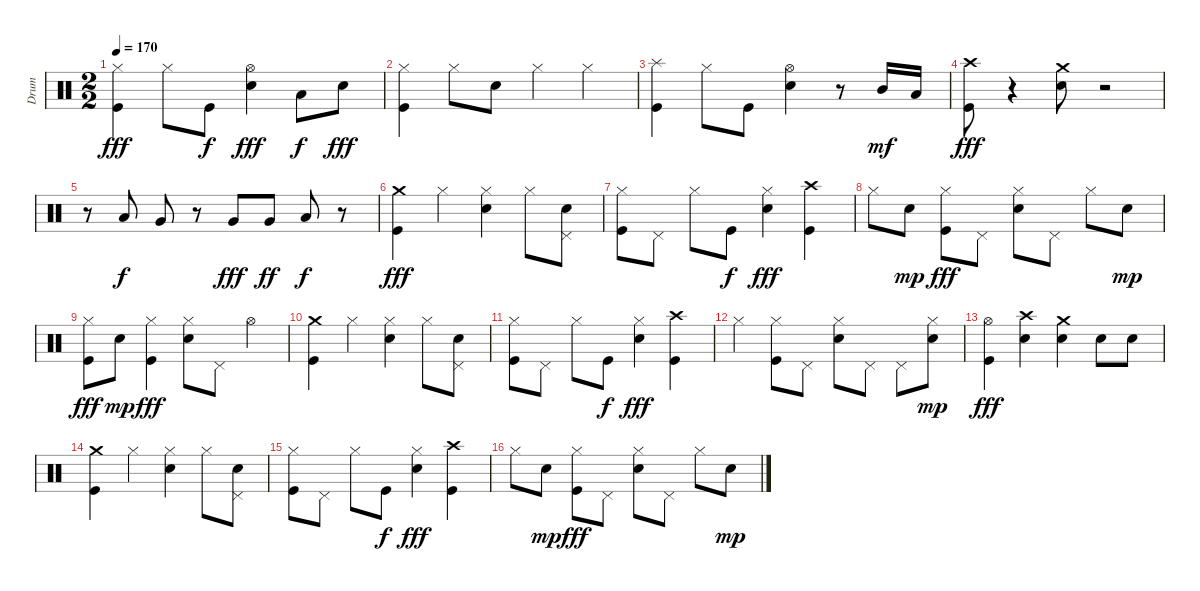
\track ("Drum" "Drum") {instrument percussion}
\staff {score}
\articulation defaults
\ts (2 2)
\tempo 170
\clef neutral
\ks c
("Kick (hit)" "Hi-Hat (closed)").4{dy fff} "Hi-Hat (closed)".8 "Kick (hit)".8{dy f} ("Electric Snare (hit)" "Hi-Hat (open)").4{dy fff} "Low Floor Tom (hit)".8{dy f} "Electric Snare (hit)".8{dy fff} |
("Hi-Hat (closed)" "Kick (hit)").4 "Hi-Hat (closed)".8 "Electric Snare (hit)".8 "Hi-Hat (closed)".4 "Hi-Hat (closed)".4 |
("Splash (hit)" "Kick (hit)").4 "Hi-Hat (closed)".8 "Kick (hit)".8 ("Electric Snare (hit)" "Hi-Hat (open)").4 r.8 "Mid Tom (hit)".16{dy mf} "Low Tom (hit)".16 |
("Kick (hit)" "Crash high (hit)").8{dy fff} r.4 ("Electric Snare (hit)" "Crash medium (hit)").8 r.2 |
r.8 "Low Tom (hit)".8{dy f} "Very Low Tom (hit)".8 r.8 "Very Low Tom (hit)".8{dy fff} "Very Low Tom (hit)".8{dy ff} "Low Floor Tom (hit)".8{dy f} r.8 |
("Crash medium (hit)" "Kick (hit)").4{dy fff} "Hi-Hat (closed)".4 ("Hi-Hat (closed)" "Electric Snare (hit)").4 "Hi-Hat (closed)".8 ("Pedal Hi-Hat (hit)" "Electric Snare (hit)").8 |
("Hi-Hat (closed)" "Kick (hit)").8 "Pedal Hi-Hat (hit)".8 "Hi-Hat (closed)".8 "Kick (hit)".8{dy f} ("Hi-Hat (closed)" "Electric Snare (hit)").4{dy fff} ("Crash high (hit)" "Kick (hit)").4 |
"Hi-Hat (closed)".8 "Electric Snare (hit)".8{dy mp} ("Kick (hit)" "Hi-Hat (closed)").8{dy fff} "Pedal Hi-Hat (hit)".8 ("Electric Snare (hit)" "Hi-Hat (closed)").8 "Pedal Hi-Hat (hit)".8 "Hi-Hat (closed)".8 "Electric Snare (hit)".8{dy mp} |
("Hi-Hat (closed)" "Kick (hit)").8{dy fff} "Electric Snare (hit)".8{dy mp} ("Hi-Hat (closed)" "Kick (hit)").4{dy fff} ("Hi-Hat (closed)" "Electric Snare (hit)").8 "Pedal Hi-Hat (hit)".8 "Hi-Hat (open)".4 |
("Crash medium (hit)" "Kick (hit)").4 "Hi-Hat (closed)".4 ("Hi-Hat (closed)" "Electric Snare (hit)").4 "Hi-Hat (closed)".8 ("Pedal Hi-Hat (hit)" "Electric Snare (hit)").8 |
("Hi-Hat (closed)" "Kick (hit)").8 "Pedal Hi-Hat (hit)".8 "Hi-Hat (closed)".8 "Kick (hit)".8{dy f} ("Hi-Hat (closed)" "Electric Snare (hit)").4{dy fff} ("Crash high (hit)" "Kick (hit)").4 |
"Hi-Hat (closed)".4 ("Kick (hit)" "Hi-Hat (closed)").8 "Pedal Hi-Hat (hit)".8 ("Electric Snare (hit)" "Hi-Hat (closed)").8 "Pedal Hi-Hat (hit)".8 "Pedal Hi-Hat (hit)".8 ("Hi-Hat (closed)" "Electric Snare (hit)").8{dy mp} |
("Kick (hit)" "Hi-Hat (open)").4{dy fff} ("Crash high (hit)" "Electric Snare (hit)").4 ("Crash medium (hit)" "Electric Snare (hit)").4 "Electric Snare (hit)".8 "Electric Snare (hit)".8 |
("Crash medium (hit)" "Kick (hit)").4 "Hi-Hat (closed)".4 ("Hi-Hat (closed)" "Electric Snare (hit)").4 "Hi-Hat (closed)".8 ("Pedal Hi-Hat (hit)" "Electric Snare (hit)").8 |
("Hi-Hat (closed)" "Kick (hit)").8 "Pedal Hi-Hat (hit)".8 "Hi-Hat (closed)".8 "Kick (hit)".8{dy f} ("Hi-Hat (closed)" "Electric Snare (hit)").4{dy fff} ("Crash high (hit)" "Kick (hit)").4 |
"Hi-Hat (closed)".8 "Electric Snare (hit)".8{dy mp} ("Kick (hit)" "Hi-Hat (closed)").8{dy fff} "Pedal Hi-Hat (hit)".8 ("Electric Snare (hit)" "Hi-Hat (closed)").8 "Pedal Hi-Hat (hit)".8 "Hi-Hat (closed)".8 "Electric Snare (hit)".8{dy mp}
